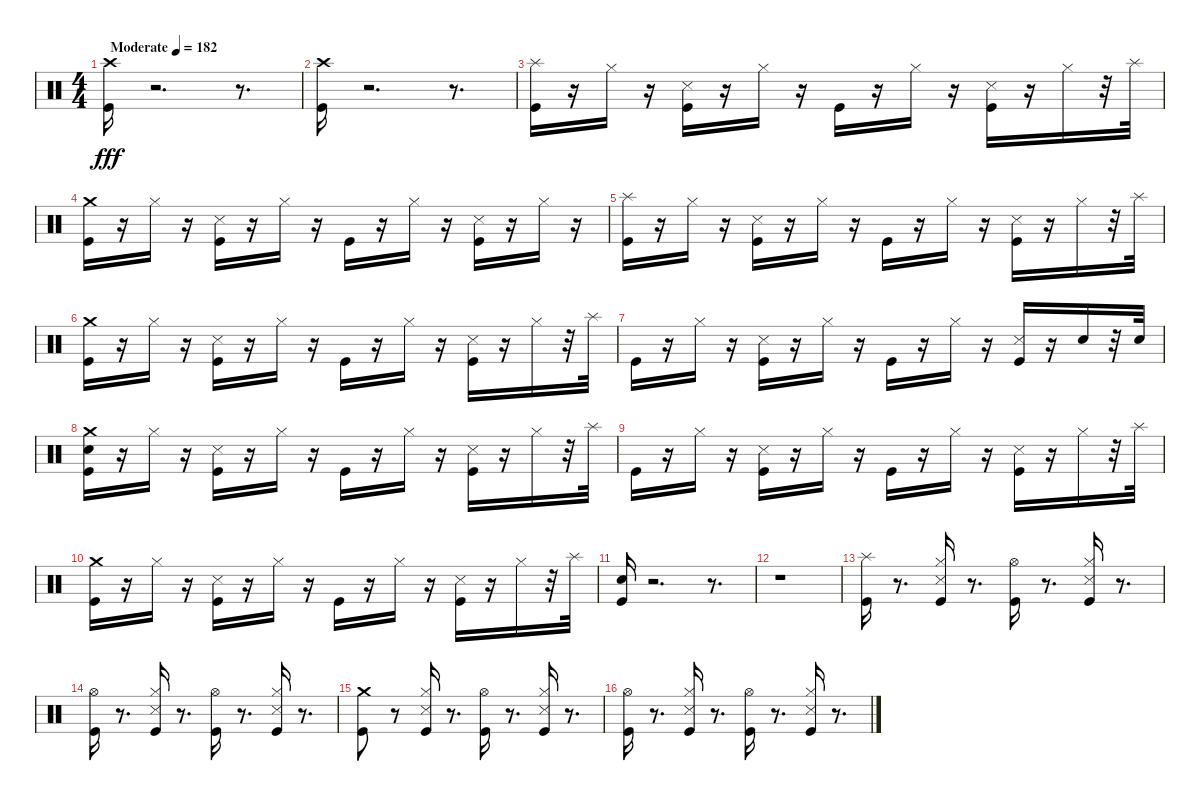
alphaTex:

\track "" {instrument percussion}
\staff {score}
\articulation defaults
\ts (4 4)
\tempo (182 "Moderate")
\clef neutral
\ks c
("Crash high (hit)" "Kick (hit)").16{dy fff} r.2{d} r.8{d} |
("Crash high (hit)" "Kick (hit)").16 r.2{d} r.8{d} |
("Kick (hit)" "Splash (hit)").16 r.16 "Hi-Hat (closed)".16 r.16 ("Kick (hit)" "Snare (side stick) 3").16 r.16 "Hi-Hat (closed)".16 r.16 "Kick (hit)".16 r.16 "Hi-Hat (closed)".16 r.16 ("Kick (hit)" "Snare (side stick) 3").16 r.16 "Hi-Hat (closed)".16 r.32 "Splash (hit)".32 |
("Crash medium (hit)" "Kick (hit)").16 r.16 "Hi-Hat (closed)".16 r.16 ("Kick (hit)" "Snare (side stick) 3").16 r.16 "Hi-Hat (closed)".16 r.16 "Kick (hit)".16 r.16 "Hi-Hat (closed)".16 r.16 ("Kick (hit)" "Snare (side stick) 3").16 r.16 "Hi-Hat (closed)".16 r.16 |
("Kick (hit)" "Splash (hit)").16 r.16 "Hi-Hat (closed)".16 r.16 ("Kick (hit)" "Snare (side stick) 3").16 r.16 "Hi-Hat (closed)".16 r.16 "Kick (hit)".16 r.16 "Hi-Hat (closed)".16 r.16 ("Kick (hit)" "Snare (side stick) 3").16 r.16 "Hi-Hat (closed)".16 r.32 "Splash (hit)".32 |
("Crash medium (hit)" "Kick (hit)").16 r.16 "Hi-Hat (closed)".16 r.16 ("Kick (hit)" "Snare (side stick) 3").16 r.16 "Hi-Hat (closed)".16 r.16 "Kick (hit)".16 r.16 "Hi-Hat (closed)".16 r.16 ("Kick (hit)" "Snare (side stick) 3").16 r.16 "Hi-Hat (closed)".16 r.32 "Splash (hit)".32 |
"Kick (hit)".16 r.16 "Hi-Hat (closed)".16 r.16 ("Kick (hit)" "Snare (side stick) 3").16 r.16 "Hi-Hat (closed)".16 r.16 "Kick (hit)".16 r.16 "Hi-Hat (closed)".16 r.16 ("Kick (hit)" "Snare (side stick) 3").16 r.16 "Electric Snare (hit)".16 r.32 "Electric Snare (hit)".32 |
("Crash medium (hit)" "Kick (hit)" "Electric Snare (hit)").16 r.16 "Hi-Hat (closed)".16 r.16 ("Kick (hit)" "Snare (side stick) 3").16 r.16 "Hi-Hat (closed)".16 r.16 "Kick (hit)".16 r.16 "Hi-Hat (closed)".16 r.16 ("Kick (hit)" "Snare (side stick) 3").16 r.16 "Hi-Hat (closed)".16 r.32 "Splash (hit)".32 |
"Kick (hit)".16 r.16 "Hi-Hat (closed)".16 r.16 ("Kick (hit)" "Snare (side stick) 3").16 r.16 "Hi-Hat (closed)".16 r.16 "Kick (hit)".16 r.16 "Hi-Hat (closed)".16 r.16 ("Kick (hit)" "Snare (side stick) 3").16 r.16 "Hi-Hat (closed)".16 r.32 "Splash (hit)".32 |
("Crash medium (hit)" "Kick (hit)").16 r.16 "Hi-Hat (closed)".16 r.16 ("Kick (hit)" "Snare (side stick) 3").16 r.16 "Hi-Hat (closed)".16 r.16 "Kick (hit)".16 r.16 "Hi-Hat (closed)".16 r.16 ("Kick (hit)" "Snare (side stick) 3").16 r.16 "Hi-Hat (closed)".16 r.32 "Splash (hit)".32 |
("Kick (hit)" "Electric Snare (hit)").16 r.2{d} r.8{d} |
r.1 |
("Splash (hit)" "Kick (hit)").16 r.8{d} ("Kick (hit)" "Snare (side stick) 3" "Hi-Hat (closed)").16 r.8{d} ("Kick (hit)" "Hi-Hat (open)").16 r.8{d} ("Kick (hit)" "Snare (side stick) 3" "Hi-Hat (closed)").16 r.8{d} |
("Kick (hit)" "Hi-Hat (open)").16 r.8{d} ("Kick (hit)" "Snare (side stick) 3" "Hi-Hat (closed)").16 r.8{d} ("Kick (hit)" "Hi-Hat (open)").16 r.8{d} ("Kick (hit)" "Snare (side stick) 3" "Hi-Hat (closed)").16 r.8{d} |
("Kick (hit)" "Crash medium (hit)").8 r.8 ("Kick (hit)" "Snare (side stick) 3" "Hi-Hat (closed)").16 r.8{d} ("Kick (hit)" "Hi-Hat (open)").16 r.8{d} ("Kick (hit)" "Snare (side stick) 3" "Hi-Hat (closed)").16 r.8{d} |
("Kick (hit)" "Hi-Hat (open)").16 r.8{d} ("Kick (hit)" "Snare (side stick) 3" "Hi-Hat (closed)").16 r.8{d} ("Kick (hit)" "Hi-Hat (open)").16 r.8{d} ("Kick (hit)" "Snare (side stick) 3" "Hi-Hat (closed)").16 r.8{d}
